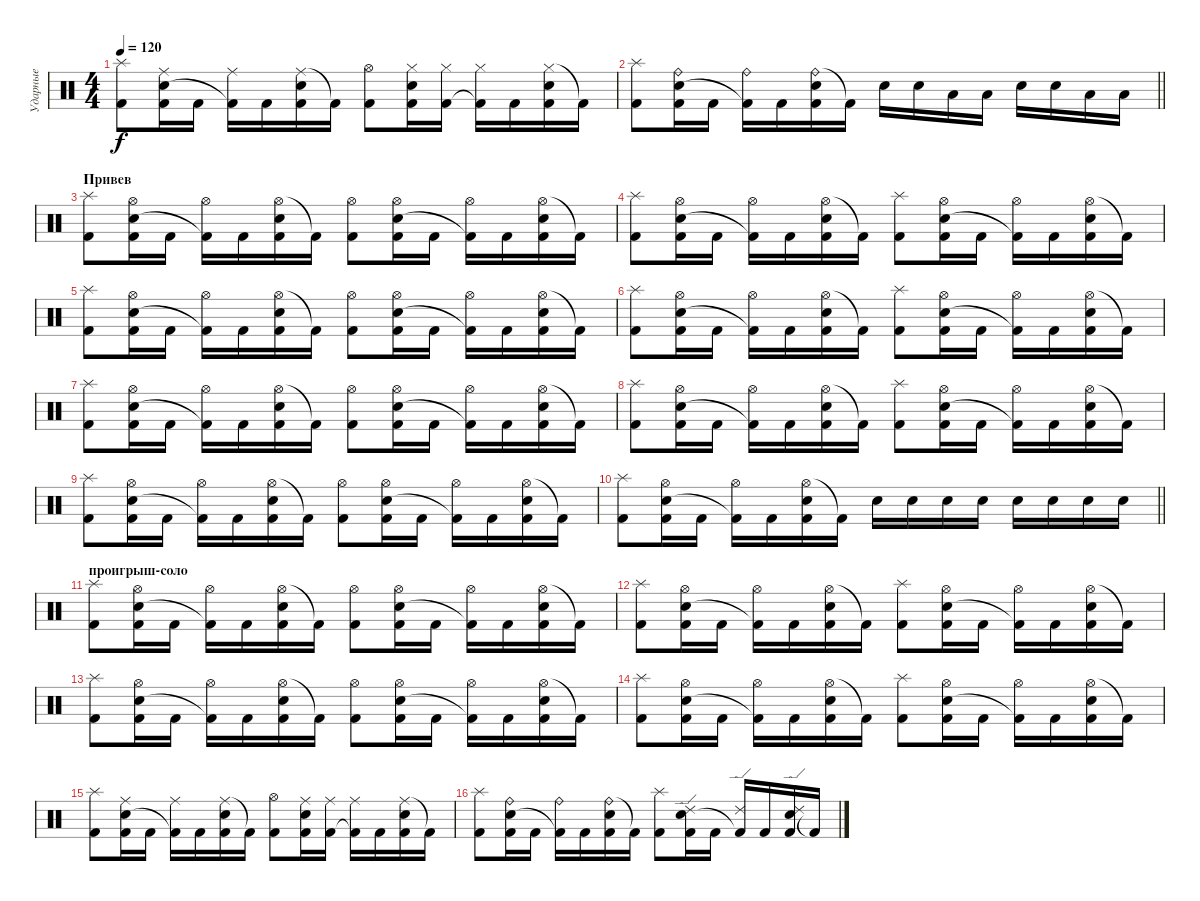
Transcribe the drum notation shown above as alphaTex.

\track ("Ударные" "Ударные") {instrument percussion}
\staff {score}
\articulation defaults
\ts (4 4)
\tempo 120
\clef neutral
\ks c
("Splash (hit)" "Kick (hit) 2").8{dy f} ("Ride (middle)" "Electric Snare (hit)" "Kick (hit) 2").16 "Kick (hit) 2".16 ("Ride (middle)" "Kick (hit) 2"{t}).16 "Kick (hit) 2".16 ("Ride (middle)" "Electric Snare (hit)" "Kick (hit) 2").16 "Kick (hit) 2"{t}.16 ("Hi-Hat (open)" "Kick (hit) 2").8 ("Hi-Hat (closed)" "Electric Snare (hit)" "Kick (hit) 2").16 ("Hi-Hat (closed)" "Kick (hit) 2").16 ("Hi-Hat (closed)" "Kick (hit) 2"{t}).16 "Kick (hit) 2".16 ("Hi-Hat (closed)" "Electric Snare (hit)" "Kick (hit) 2").16 "Kick (hit) 2"{t}.16 |
\barLineRight lightlight
("Splash (hit)" "Kick (hit) 2").8 ("Ride (bell)" "Electric Snare (hit)" "Kick (hit) 2").16 "Kick (hit) 2".16 ("Ride (bell)" "Kick (hit) 2"{t}).16 "Kick (hit) 2".16 ("Ride (bell)" "Electric Snare (hit)" "Kick (hit) 2").16 "Kick (hit) 2"{t}.16 "Electric Snare (hit)".16 "Electric Snare (hit)".16 "Low Tom (hit)".16 "Low Tom (hit)".16 "Electric Snare (hit)".16 "Electric Snare (hit)".16 "Low Tom (hit)".16 "Low Tom (hit)".16 |
\section ("" "Привев")
("Splash (hit)" "Kick (hit) 2").8 ("Hi-Hat (open)" "Electric Snare (hit)" "Kick (hit) 2").16 "Kick (hit) 2".16 ("Hi-Hat (open)" "Kick (hit) 2"{t}).16 "Kick (hit) 2".16 ("Hi-Hat (open)" "Electric Snare (hit)" "Kick (hit) 2").16 "Kick (hit) 2"{t}.16 ("Hi-Hat (open)" "Kick (hit) 2").8 ("Hi-Hat (open)" "Electric Snare (hit)" "Kick (hit) 2").16 "Kick (hit) 2".16 ("Hi-Hat (open)" "Kick (hit) 2"{t}).16 "Kick (hit) 2".16 ("Hi-Hat (open)" "Electric Snare (hit)" "Kick (hit) 2").16 "Kick (hit) 2"{t}.16 |
("Splash (hit)" "Kick (hit) 2").8 ("Hi-Hat (open)" "Electric Snare (hit)" "Kick (hit) 2").16 "Kick (hit) 2".16 ("Hi-Hat (open)" "Kick (hit) 2"{t}).16 "Kick (hit) 2".16 ("Hi-Hat (open)" "Electric Snare (hit)" "Kick (hit) 2").16 "Kick (hit) 2"{t}.16 ("Splash (hit)" "Kick (hit) 2").8 ("Hi-Hat (open)" "Electric Snare (hit)" "Kick (hit) 2").16 "Kick (hit) 2".16 ("Hi-Hat (open)" "Kick (hit) 2"{t}).16 "Kick (hit) 2".16 ("Hi-Hat (open)" "Electric Snare (hit)" "Kick (hit) 2").16 "Kick (hit) 2"{t}.16 |
("Splash (hit)" "Kick (hit) 2").8 ("Hi-Hat (open)" "Electric Snare (hit)" "Kick (hit) 2").16 "Kick (hit) 2".16 ("Hi-Hat (open)" "Kick (hit) 2"{t}).16 "Kick (hit) 2".16 ("Hi-Hat (open)" "Electric Snare (hit)" "Kick (hit) 2").16 "Kick (hit) 2"{t}.16 ("Hi-Hat (open)" "Kick (hit) 2").8 ("Hi-Hat (open)" "Electric Snare (hit)" "Kick (hit) 2").16 "Kick (hit) 2".16 ("Hi-Hat (open)" "Kick (hit) 2"{t}).16 "Kick (hit) 2".16 ("Hi-Hat (open)" "Electric Snare (hit)" "Kick (hit) 2").16 "Kick (hit) 2"{t}.16 |
("Splash (hit)" "Kick (hit) 2").8 ("Hi-Hat (open)" "Electric Snare (hit)" "Kick (hit) 2").16 "Kick (hit) 2".16 ("Hi-Hat (open)" "Kick (hit) 2"{t}).16 "Kick (hit) 2".16 ("Hi-Hat (open)" "Electric Snare (hit)" "Kick (hit) 2").16 "Kick (hit) 2"{t}.16 ("Splash (hit)" "Kick (hit) 2").8 ("Hi-Hat (open)" "Electric Snare (hit)" "Kick (hit) 2").16 "Kick (hit) 2".16 ("Hi-Hat (open)" "Kick (hit) 2"{t}).16 "Kick (hit) 2".16 ("Hi-Hat (open)" "Electric Snare (hit)" "Kick (hit) 2").16 "Kick (hit) 2"{t}.16 |
("Splash (hit)" "Kick (hit) 2").8 ("Hi-Hat (open)" "Electric Snare (hit)" "Kick (hit) 2").16 "Kick (hit) 2".16 ("Hi-Hat (open)" "Kick (hit) 2"{t}).16 "Kick (hit) 2".16 ("Hi-Hat (open)" "Electric Snare (hit)" "Kick (hit) 2").16 "Kick (hit) 2"{t}.16 ("Hi-Hat (open)" "Kick (hit) 2").8 ("Hi-Hat (open)" "Electric Snare (hit)" "Kick (hit) 2").16 "Kick (hit) 2".16 ("Hi-Hat (open)" "Kick (hit) 2"{t}).16 "Kick (hit) 2".16 ("Hi-Hat (open)" "Electric Snare (hit)" "Kick (hit) 2").16 "Kick (hit) 2"{t}.16 |
("Splash (hit)" "Kick (hit) 2").8 ("Hi-Hat (open)" "Electric Snare (hit)" "Kick (hit) 2").16 "Kick (hit) 2".16 ("Hi-Hat (open)" "Kick (hit) 2"{t}).16 "Kick (hit) 2".16 ("Hi-Hat (open)" "Electric Snare (hit)" "Kick (hit) 2").16 "Kick (hit) 2"{t}.16 ("Splash (hit)" "Kick (hit) 2").8 ("Hi-Hat (open)" "Electric Snare (hit)" "Kick (hit) 2").16 "Kick (hit) 2".16 ("Hi-Hat (open)" "Kick (hit) 2"{t}).16 "Kick (hit) 2".16 ("Hi-Hat (open)" "Electric Snare (hit)" "Kick (hit) 2").16 "Kick (hit) 2"{t}.16 |
("Splash (hit)" "Kick (hit) 2").8 ("Hi-Hat (open)" "Electric Snare (hit)" "Kick (hit) 2").16 "Kick (hit) 2".16 ("Hi-Hat (open)" "Kick (hit) 2"{t}).16 "Kick (hit) 2".16 ("Hi-Hat (open)" "Electric Snare (hit)" "Kick (hit) 2").16 "Kick (hit) 2"{t}.16 ("Hi-Hat (open)" "Kick (hit) 2").8 ("Hi-Hat (open)" "Electric Snare (hit)" "Kick (hit) 2").16 "Kick (hit) 2".16 ("Hi-Hat (open)" "Kick (hit) 2"{t}).16 "Kick (hit) 2".16 ("Hi-Hat (open)" "Electric Snare (hit)" "Kick (hit) 2").16 "Kick (hit) 2"{t}.16 |
\barLineRight lightlight
("Splash (hit)" "Kick (hit) 2").8 ("Hi-Hat (open)" "Electric Snare (hit)" "Kick (hit) 2").16 "Kick (hit) 2".16 ("Hi-Hat (open)" "Kick (hit) 2"{t}).16 "Kick (hit) 2".16 ("Hi-Hat (open)" "Electric Snare (hit)" "Kick (hit) 2").16 "Kick (hit) 2"{t}.16 "Electric Snare (hit)".16 "Electric Snare (hit)".16 "Electric Snare (hit)".16 "Electric Snare (hit)".16 "Electric Snare (hit)".16 "Electric Snare (hit)".16 "Electric Snare (hit)".16 "Electric Snare (hit)".16 |
\section ("" "проигрыш-соло")
("Splash (hit)" "Kick (hit) 2").8 ("Hi-Hat (open)" "Electric Snare (hit)" "Kick (hit) 2").16 "Kick (hit) 2".16 ("Hi-Hat (open)" "Kick (hit) 2"{t}).16 "Kick (hit) 2".16 ("Hi-Hat (open)" "Electric Snare (hit)" "Kick (hit) 2").16 "Kick (hit) 2"{t}.16 ("Hi-Hat (open)" "Kick (hit) 2").8 ("Hi-Hat (open)" "Electric Snare (hit)" "Kick (hit) 2").16 "Kick (hit) 2".16 ("Hi-Hat (open)" "Kick (hit) 2"{t}).16 "Kick (hit) 2".16 ("Hi-Hat (open)" "Electric Snare (hit)" "Kick (hit) 2").16 "Kick (hit) 2"{t}.16 |
("Splash (hit)" "Kick (hit) 2").8 ("Hi-Hat (open)" "Electric Snare (hit)" "Kick (hit) 2").16 "Kick (hit) 2".16 ("Hi-Hat (open)" "Kick (hit) 2"{t}).16 "Kick (hit) 2".16 ("Hi-Hat (open)" "Electric Snare (hit)" "Kick (hit) 2").16 "Kick (hit) 2"{t}.16 ("Splash (hit)" "Kick (hit) 2").8 ("Hi-Hat (open)" "Electric Snare (hit)" "Kick (hit) 2").16 "Kick (hit) 2".16 ("Hi-Hat (open)" "Kick (hit) 2"{t}).16 "Kick (hit) 2".16 ("Hi-Hat (open)" "Electric Snare (hit)" "Kick (hit) 2").16 "Kick (hit) 2"{t}.16 |
("Splash (hit)" "Kick (hit) 2").8 ("Hi-Hat (open)" "Electric Snare (hit)" "Kick (hit) 2").16 "Kick (hit) 2".16 ("Hi-Hat (open)" "Kick (hit) 2"{t}).16 "Kick (hit) 2".16 ("Hi-Hat (open)" "Electric Snare (hit)" "Kick (hit) 2").16 "Kick (hit) 2"{t}.16 ("Hi-Hat (open)" "Kick (hit) 2").8 ("Hi-Hat (open)" "Electric Snare (hit)" "Kick (hit) 2").16 "Kick (hit) 2".16 ("Hi-Hat (open)" "Kick (hit) 2"{t}).16 "Kick (hit) 2".16 ("Hi-Hat (open)" "Electric Snare (hit)" "Kick (hit) 2").16 "Kick (hit) 2"{t}.16 |
("Splash (hit)" "Kick (hit) 2").8 ("Hi-Hat (open)" "Electric Snare (hit)" "Kick (hit) 2").16 "Kick (hit) 2".16 ("Hi-Hat (open)" "Kick (hit) 2"{t}).16 "Kick (hit) 2".16 ("Hi-Hat (open)" "Electric Snare (hit)" "Kick (hit) 2").16 "Kick (hit) 2"{t}.16 ("Splash (hit)" "Kick (hit) 2").8 ("Hi-Hat (open)" "Electric Snare (hit)" "Kick (hit) 2").16 "Kick (hit) 2".16 ("Hi-Hat (open)" "Kick (hit) 2"{t}).16 "Kick (hit) 2".16 ("Hi-Hat (open)" "Electric Snare (hit)" "Kick (hit) 2").16 "Kick (hit) 2"{t}.16 |
("Splash (hit)" "Kick (hit) 2").8 ("Ride (middle)" "Electric Snare (hit)" "Kick (hit) 2").16 "Kick (hit) 2".16 ("Ride (middle)" "Kick (hit) 2"{t}).16 "Kick (hit) 2".16 ("Ride (middle)" "Electric Snare (hit)" "Kick (hit) 2").16 "Kick (hit) 2"{t}.16 ("Hi-Hat (open)" "Kick (hit) 2").8 ("Ride (middle)" "Electric Snare (hit)" "Kick (hit) 2").16 ("Ride (middle)" "Kick (hit) 2").16 ("Ride (middle)" "Kick (hit) 2"{t}).16 "Kick (hit) 2".16 ("Ride (middle)" "Electric Snare (hit)" "Kick (hit) 2").16 "Kick (hit) 2"{t}.16 |
("Splash (hit)" "Kick (hit) 2").8 ("Ride (bell)" "Electric Snare (hit)" "Kick (hit) 2").16 "Kick (hit) 2".16 ("Ride (bell)" "Kick (hit) 2"{t}).16 "Kick (hit) 2".16 ("Ride (bell)" "Electric Snare (hit)" "Kick (hit) 2").16 "Kick (hit) 2"{t}.16 ("Splash (hit)" "Kick (hit) 2").8 ("Ride (edge) 2" "Electric Snare (hit)" "Kick (hit) 2").16 "Kick (hit) 2".16 ("Ride (edge) 2" "Kick (hit) 2"{t}).16 "Kick (hit) 2".16 ("Ride (edge) 2" "Electric Snare (hit)" "Kick (hit) 2").16 "Kick (hit) 2"{t}.16
